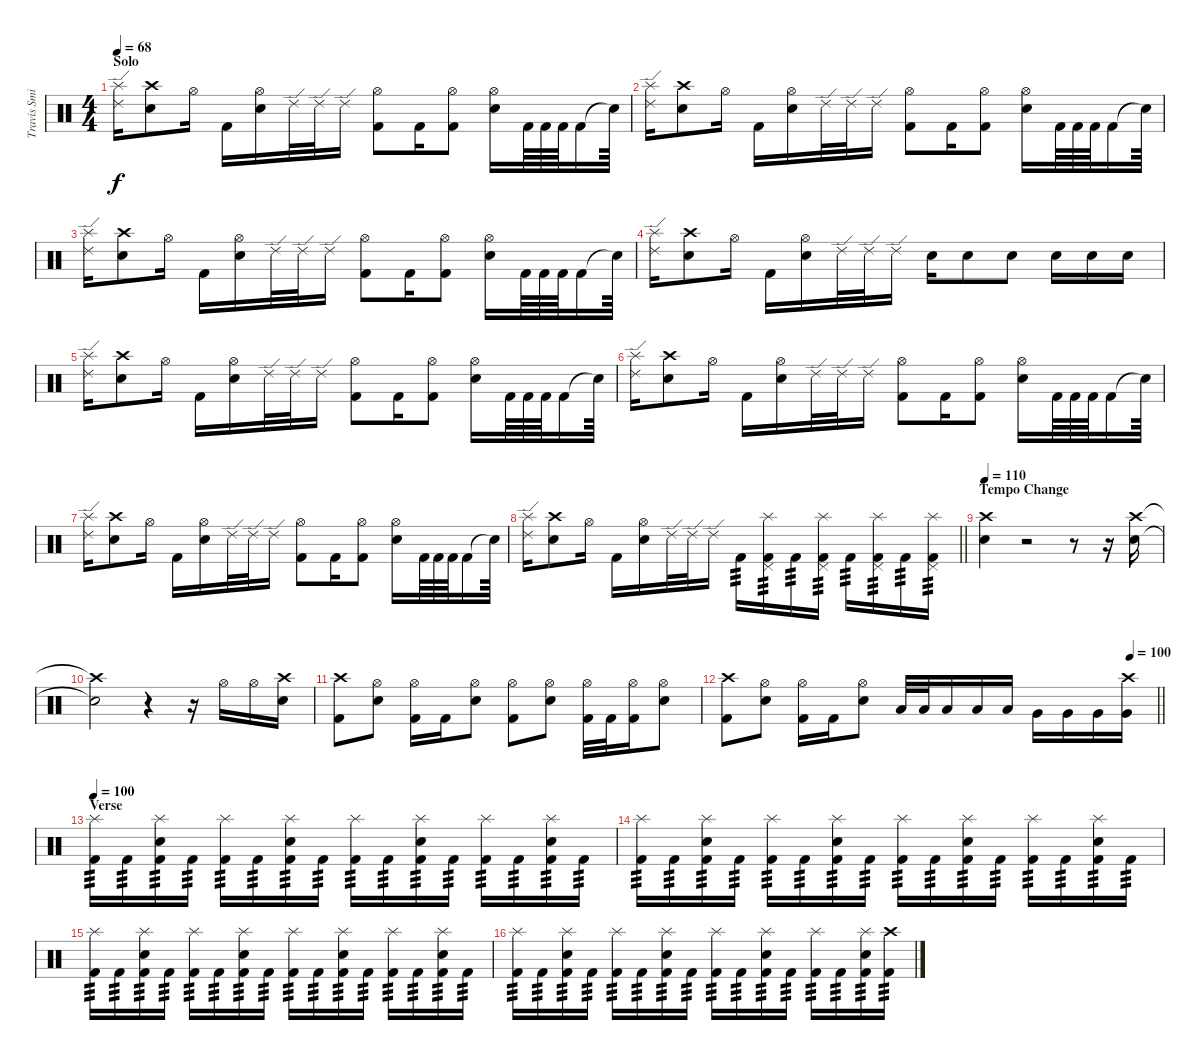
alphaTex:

\track ("Travis Smith" "Travis Smi") {instrument percussion}
\staff {score}
\articulation defaults
\ts (4 4)
\section ("" "Solo")
\tempo 68
\clef neutral
\ks c
("Ride (edge) 2" "Splash (hit)").16{dy f} ("Crash high (hit)" "Snare (hit) 2").8 "Hi-Hat (open)".16 "Kick (hit) 2".16 ("Hi-Hat (open)" "Snare (hit) 2").16 "Ride (edge) 2".32 "Ride (edge) 2".32 "Ride (edge) 2".16 ("Hi-Hat (open)" "Kick (hit) 2").8 "Kick (hit) 2".16 ("Hi-Hat (open)" "Kick (hit) 2").8 ("Hi-Hat (open)" "Snare (hit) 2").16 "Kick (hit) 2".64 "Kick (hit) 2".64 "Kick (hit) 2".64 "Kick (hit) 2".16 "Snare (hit)"{t}.64 |
("Ride (edge) 2" "Splash (hit)").16 ("Crash high (hit)" "Snare (hit) 2").8 "Hi-Hat (open)".16 "Kick (hit) 2".16 ("Hi-Hat (open)" "Snare (hit) 2").16 "Ride (edge) 2".32 "Ride (edge) 2".32 "Ride (edge) 2".16 ("Hi-Hat (open)" "Kick (hit) 2").8 "Kick (hit) 2".16 ("Hi-Hat (open)" "Kick (hit) 2").8 ("Hi-Hat (open)" "Snare (hit) 2").16 "Kick (hit) 2".64 "Kick (hit) 2".64 "Kick (hit) 2".64 "Kick (hit) 2".16 "Snare (hit)"{t}.64 |
("Ride (edge) 2" "Splash (hit)").16 ("Crash high (hit)" "Snare (hit) 2").8 "Hi-Hat (open)".16 "Kick (hit) 2".16 ("Hi-Hat (open)" "Snare (hit) 2").16 "Ride (edge) 2".32 "Ride (edge) 2".32 "Ride (edge) 2".16 ("Hi-Hat (open)" "Kick (hit) 2").8 "Kick (hit) 2".16 ("Hi-Hat (open)" "Kick (hit) 2").8 ("Hi-Hat (open)" "Snare (hit) 2").16 "Kick (hit) 2".64 "Kick (hit) 2".64 "Kick (hit) 2".64 "Kick (hit) 2".16 "Snare (hit)"{t}.64 |
("Ride (edge) 2" "Splash (hit)").16 ("Crash high (hit)" "Snare (hit) 2").8 "Hi-Hat (open)".16 "Kick (hit) 2".16 ("Hi-Hat (open)" "Snare (hit) 2").16 "Ride (edge) 2".32 "Ride (edge) 2".32 "Ride (edge) 2".16 "Snare (hit) 2".16 "Snare (hit) 2".8 "Snare (hit) 2".8 "Snare (hit) 2".16 "Snare (hit) 2".16 "Snare (hit) 2".16 |
("Ride (edge) 2" "Splash (hit)").16 ("Crash high (hit)" "Snare (hit) 2").8 "Hi-Hat (open)".16 "Kick (hit) 2".16 ("Hi-Hat (open)" "Snare (hit) 2").16 "Ride (edge) 2".32 "Ride (edge) 2".32 "Ride (edge) 2".16 ("Hi-Hat (open)" "Kick (hit) 2").8 "Kick (hit) 2".16 ("Hi-Hat (open)" "Kick (hit) 2").8 ("Hi-Hat (open)" "Snare (hit) 2").16 "Kick (hit) 2".64 "Kick (hit) 2".64 "Kick (hit) 2".64 "Kick (hit) 2".16 "Snare (hit)"{t}.64 |
("Ride (edge) 2" "Splash (hit)").16 ("Crash high (hit)" "Snare (hit) 2").8 "Hi-Hat (open)".16 "Kick (hit) 2".16 ("Hi-Hat (open)" "Snare (hit) 2").16 "Ride (edge) 2".32 "Ride (edge) 2".32 "Ride (edge) 2".16 ("Hi-Hat (open)" "Kick (hit) 2").8 "Kick (hit) 2".16 ("Hi-Hat (open)" "Kick (hit) 2").8 ("Hi-Hat (open)" "Snare (hit) 2").16 "Kick (hit) 2".64 "Kick (hit) 2".64 "Kick (hit) 2".64 "Kick (hit) 2".16 "Snare (hit)"{t}.64 |
("Ride (edge) 2" "Splash (hit)").16 ("Crash high (hit)" "Snare (hit) 2").8 "Hi-Hat (open)".16 "Kick (hit) 2".16 ("Hi-Hat (open)" "Snare (hit) 2").16 "Ride (edge) 2".32 "Ride (edge) 2".32 "Ride (edge) 2".16 ("Hi-Hat (open)" "Kick (hit) 2").8 "Kick (hit) 2".16 ("Hi-Hat (open)" "Kick (hit) 2").8 ("Hi-Hat (open)" "Snare (hit) 2").16 "Kick (hit) 2".64 "Kick (hit) 2".64 "Kick (hit) 2".64 "Kick (hit) 2".16 "Snare (hit)"{t}.64 |
\barLineRight lightlight
("Ride (edge) 2" "Splash (hit)").16 ("Crash high (hit)" "Snare (hit) 2").8 "Hi-Hat (open)".16 "Kick (hit) 2".16 ("Hi-Hat (open)" "Snare (hit) 2").16 "Ride (edge) 2".32 "Ride (edge) 2".32 "Ride (edge) 2".16 "Kick (hit) 2".16{tp 3} ("Splash (hit)" "Pedal Hi-Hat (hit)" "Kick (hit) 2").16{tp 3} "Kick (hit) 2".16{tp 3} ("Splash (hit)" "Pedal Hi-Hat (hit)" "Kick (hit) 2").16{tp 3} "Kick (hit) 2".16{tp 3} ("Splash (hit)" "Pedal Hi-Hat (hit)" "Kick (hit) 2").16{tp 3} "Kick (hit) 2".16{tp 3} ("Splash (hit)" "Pedal Hi-Hat (hit)" "Kick (hit) 2").16{tp 3} |
\section ("" "Tempo Change")
\tempo 110
("Crash high (hit)" "Snare (hit) 2").4 r.2 r.8 r.16 ("Crash high (hit)" "Snare (hit) 2").16 |
("Crash high (hit)"{t} "Snare (hit) 2"{t}).2 r.4 r.16 "Hi-Hat (open)".16 "Hi-Hat (open)".16 ("Crash high (hit)" "Snare (hit) 2").16 |
("Crash high (hit)" "Kick (hit) 2").8 ("Hi-Hat (open)" "Snare (hit) 2").8 ("Hi-Hat (open)" "Kick (hit) 2").16 "Kick (hit) 2".16 ("Hi-Hat (open)" "Snare (hit) 2").8 ("Hi-Hat (open)" "Kick (hit) 2").8 ("Hi-Hat (open)" "Snare (hit) 2").8 ("Hi-Hat (open)" "Kick (hit) 2").32 "Kick (hit) 2".32 ("Hi-Hat (open)" "Kick (hit) 2").16 ("Hi-Hat (open)" "Snare (hit) 2").8 |
\tempo (100 0.9375)
\barLineRight lightlight
("Crash high (hit)" "Kick (hit) 2").8 ("Hi-Hat (open)" "Snare (hit) 2").8 ("Hi-Hat (open)" "Kick (hit) 2").16 "Kick (hit) 2".16 ("Hi-Hat (open)" "Snare (hit) 2").8 "Low Tom (hit)".32 "Low Tom (hit)".32 "Low Tom (hit)".16 "Low Tom (hit)".16 "Low Tom (hit)".16 "Very Low Tom (hit)".16 "Very Low Tom (hit)".16 "Very Low Tom (hit)".16 ("Crash high (hit)" "Very Low Tom (hit)").16 |
\section ("" "Verse")
\tempo 100
("Splash (hit)" "Kick (hit) 2").16{tp 3} "Kick (hit) 2".16{tp 3} ("Splash (hit)" "Snare (hit) 2" "Kick (hit) 2").16{tp 3} "Kick (hit) 2".16{tp 3} ("Splash (hit)" "Kick (hit) 2").16{tp 3} "Kick (hit) 2".16{tp 3} ("Splash (hit)" "Snare (hit) 2" "Kick (hit) 2").16{tp 3} "Kick (hit) 2".16{tp 3} ("Splash (hit)" "Kick (hit) 2").16{tp 3} "Kick (hit) 2".16{tp 3} ("Splash (hit)" "Snare (hit) 2" "Kick (hit) 2").16{tp 3} "Kick (hit) 2".16{tp 3} ("Splash (hit)" "Kick (hit) 2").16{tp 3} "Kick (hit) 2".16{tp 3} ("Splash (hit)" "Snare (hit) 2" "Kick (hit) 2").16{tp 3} "Kick (hit) 2".16{tp 3} |
("Splash (hit)" "Kick (hit) 2").16{tp 3} "Kick (hit) 2".16{tp 3} ("Splash (hit)" "Snare (hit) 2" "Kick (hit) 2").16{tp 3} "Kick (hit) 2".16{tp 3} ("Splash (hit)" "Kick (hit) 2").16{tp 3} "Kick (hit) 2".16{tp 3} ("Splash (hit)" "Snare (hit) 2" "Kick (hit) 2").16{tp 3} "Kick (hit) 2".16{tp 3} ("Splash (hit)" "Kick (hit) 2").16{tp 3} "Kick (hit) 2".16{tp 3} ("Splash (hit)" "Snare (hit) 2" "Kick (hit) 2").16{tp 3} "Kick (hit) 2".16{tp 3} ("Splash (hit)" "Kick (hit) 2").16{tp 3} "Kick (hit) 2".16{tp 3} ("Splash (hit)" "Snare (hit) 2" "Kick (hit) 2").16{tp 3} "Kick (hit) 2".16{tp 3} |
("Splash (hit)" "Kick (hit) 2").16{tp 3} "Kick (hit) 2".16{tp 3} ("Splash (hit)" "Snare (hit) 2" "Kick (hit) 2").16{tp 3} "Kick (hit) 2".16{tp 3} ("Splash (hit)" "Kick (hit) 2").16{tp 3} "Kick (hit) 2".16{tp 3} ("Splash (hit)" "Snare (hit) 2" "Kick (hit) 2").16{tp 3} "Kick (hit) 2".16{tp 3} ("Splash (hit)" "Kick (hit) 2").16{tp 3} "Kick (hit) 2".16{tp 3} ("Splash (hit)" "Snare (hit) 2" "Kick (hit) 2").16{tp 3} "Kick (hit) 2".16{tp 3} ("Splash (hit)" "Kick (hit) 2").16{tp 3} "Kick (hit) 2".16{tp 3} ("Splash (hit)" "Snare (hit) 2" "Kick (hit) 2").16{tp 3} "Kick (hit) 2".16{tp 3} |
("Splash (hit)" "Kick (hit) 2").16{tp 3} "Kick (hit) 2".16{tp 3} ("Splash (hit)" "Snare (hit) 2" "Kick (hit) 2").16{tp 3} "Kick (hit) 2".16{tp 3} ("Splash (hit)" "Kick (hit) 2").16{tp 3} "Kick (hit) 2".16{tp 3} ("Splash (hit)" "Snare (hit) 2" "Kick (hit) 2").16{tp 3} "Kick (hit) 2".16{tp 3} ("Splash (hit)" "Kick (hit) 2").16{tp 3} "Kick (hit) 2".16{tp 3} ("Splash (hit)" "Snare (hit) 2" "Kick (hit) 2").16{tp 3} "Kick (hit) 2".16{tp 3} ("Splash (hit)" "Kick (hit) 2").16{tp 3} "Kick (hit) 2".16{tp 3} ("Splash (hit)" "Snare (hit) 2" "Kick (hit) 2").16{tp 3} ("Crash high (hit)" "Kick (hit) 2").16{tp 3}
